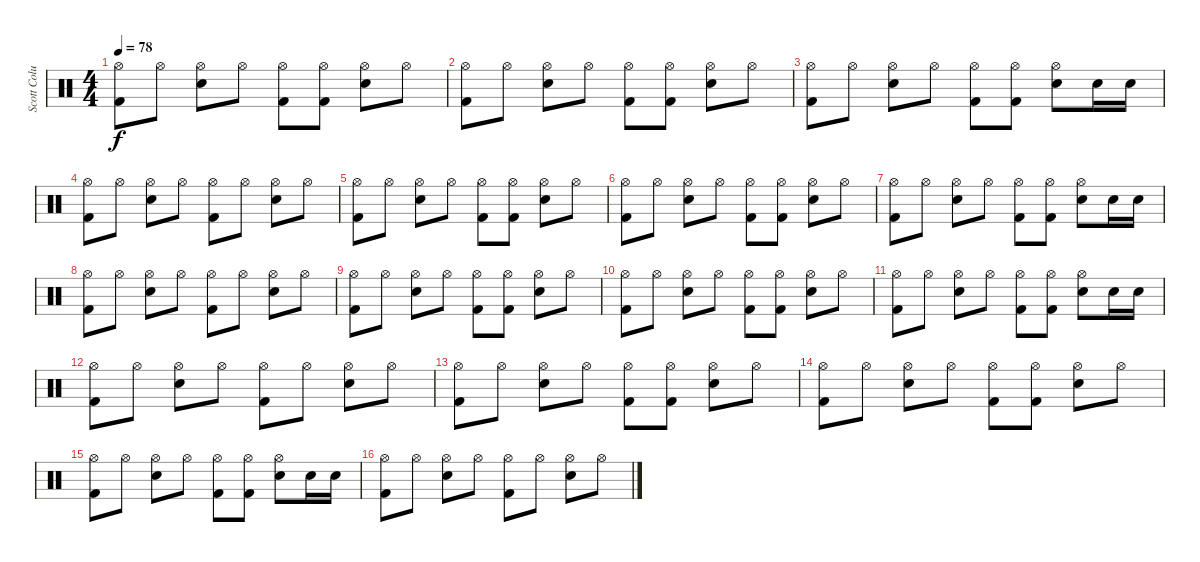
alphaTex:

\track ("Scott Columbus" "Scott Colu") {instrument percussion}
\staff {score}
\articulation defaults
\ts (4 4)
\tempo 78
\clef neutral
\ks c
("Kick (hit) 2" "Hi-Hat (open)").8{dy f} "Hi-Hat (open)".8 ("Electric Snare (hit)" "Hi-Hat (open)").8 "Hi-Hat (open)".8 ("Kick (hit) 2" "Hi-Hat (open)").8 ("Kick (hit) 2" "Hi-Hat (open)").8 ("Electric Snare (hit)" "Hi-Hat (open)").8 "Hi-Hat (open)".8 |
("Kick (hit) 2" "Hi-Hat (open)").8 "Hi-Hat (open)".8 ("Electric Snare (hit)" "Hi-Hat (open)").8 "Hi-Hat (open)".8 ("Kick (hit) 2" "Hi-Hat (open)").8 ("Kick (hit) 2" "Hi-Hat (open)").8 ("Electric Snare (hit)" "Hi-Hat (open)").8 "Hi-Hat (open)".8 |
("Kick (hit) 2" "Hi-Hat (open)").8 "Hi-Hat (open)".8 ("Electric Snare (hit)" "Hi-Hat (open)").8 "Hi-Hat (open)".8 ("Kick (hit) 2" "Hi-Hat (open)").8 ("Kick (hit) 2" "Hi-Hat (open)").8 ("Electric Snare (hit)" "Hi-Hat (open)").8 "Electric Snare (hit)".16 "Electric Snare (hit)".16 |
("Kick (hit) 2" "Hi-Hat (open)").8 "Hi-Hat (open)".8 ("Electric Snare (hit)" "Hi-Hat (open)").8 "Hi-Hat (open)".8 ("Kick (hit) 2" "Hi-Hat (open)").8 "Hi-Hat (open)".8 ("Electric Snare (hit)" "Hi-Hat (open)").8 "Hi-Hat (open)".8 |
("Kick (hit) 2" "Hi-Hat (open)").8 "Hi-Hat (open)".8 ("Electric Snare (hit)" "Hi-Hat (open)").8 "Hi-Hat (open)".8 ("Kick (hit) 2" "Hi-Hat (open)").8 ("Kick (hit) 2" "Hi-Hat (open)").8 ("Electric Snare (hit)" "Hi-Hat (open)").8 "Hi-Hat (open)".8 |
("Kick (hit) 2" "Hi-Hat (open)").8 "Hi-Hat (open)".8 ("Electric Snare (hit)" "Hi-Hat (open)").8 "Hi-Hat (open)".8 ("Kick (hit) 2" "Hi-Hat (open)").8 ("Kick (hit) 2" "Hi-Hat (open)").8 ("Electric Snare (hit)" "Hi-Hat (open)").8 "Hi-Hat (open)".8 |
("Kick (hit) 2" "Hi-Hat (open)").8 "Hi-Hat (open)".8 ("Electric Snare (hit)" "Hi-Hat (open)").8 "Hi-Hat (open)".8 ("Kick (hit) 2" "Hi-Hat (open)").8 ("Kick (hit) 2" "Hi-Hat (open)").8 ("Electric Snare (hit)" "Hi-Hat (open)").8 "Electric Snare (hit)".16 "Electric Snare (hit)".16 |
("Kick (hit) 2" "Hi-Hat (open)").8 "Hi-Hat (open)".8 ("Electric Snare (hit)" "Hi-Hat (open)").8 "Hi-Hat (open)".8 ("Kick (hit) 2" "Hi-Hat (open)").8 "Hi-Hat (open)".8 ("Electric Snare (hit)" "Hi-Hat (open)").8 "Hi-Hat (open)".8 |
("Kick (hit) 2" "Hi-Hat (open)").8 "Hi-Hat (open)".8 ("Electric Snare (hit)" "Hi-Hat (open)").8 "Hi-Hat (open)".8 ("Kick (hit) 2" "Hi-Hat (open)").8 ("Kick (hit) 2" "Hi-Hat (open)").8 ("Electric Snare (hit)" "Hi-Hat (open)").8 "Hi-Hat (open)".8 |
("Kick (hit) 2" "Hi-Hat (open)").8 "Hi-Hat (open)".8 ("Electric Snare (hit)" "Hi-Hat (open)").8 "Hi-Hat (open)".8 ("Kick (hit) 2" "Hi-Hat (open)").8 ("Kick (hit) 2" "Hi-Hat (open)").8 ("Electric Snare (hit)" "Hi-Hat (open)").8 "Hi-Hat (open)".8 |
("Kick (hit) 2" "Hi-Hat (open)").8 "Hi-Hat (open)".8 ("Electric Snare (hit)" "Hi-Hat (open)").8 "Hi-Hat (open)".8 ("Kick (hit) 2" "Hi-Hat (open)").8 ("Kick (hit) 2" "Hi-Hat (open)").8 ("Electric Snare (hit)" "Hi-Hat (open)").8 "Electric Snare (hit)".16 "Electric Snare (hit)".16 |
("Kick (hit) 2" "Hi-Hat (open)").8 "Hi-Hat (open)".8 ("Electric Snare (hit)" "Hi-Hat (open)").8 "Hi-Hat (open)".8 ("Kick (hit) 2" "Hi-Hat (open)").8 "Hi-Hat (open)".8 ("Electric Snare (hit)" "Hi-Hat (open)").8 "Hi-Hat (open)".8 |
("Kick (hit) 2" "Hi-Hat (open)").8 "Hi-Hat (open)".8 ("Electric Snare (hit)" "Hi-Hat (open)").8 "Hi-Hat (open)".8 ("Kick (hit) 2" "Hi-Hat (open)").8 ("Kick (hit) 2" "Hi-Hat (open)").8 ("Electric Snare (hit)" "Hi-Hat (open)").8 "Hi-Hat (open)".8 |
("Kick (hit) 2" "Hi-Hat (open)").8 "Hi-Hat (open)".8 ("Electric Snare (hit)" "Hi-Hat (open)").8 "Hi-Hat (open)".8 ("Kick (hit) 2" "Hi-Hat (open)").8 ("Kick (hit) 2" "Hi-Hat (open)").8 ("Electric Snare (hit)" "Hi-Hat (open)").8 "Hi-Hat (open)".8 |
("Kick (hit) 2" "Hi-Hat (open)").8 "Hi-Hat (open)".8 ("Electric Snare (hit)" "Hi-Hat (open)").8 "Hi-Hat (open)".8 ("Kick (hit) 2" "Hi-Hat (open)").8 ("Kick (hit) 2" "Hi-Hat (open)").8 ("Electric Snare (hit)" "Hi-Hat (open)").8 "Electric Snare (hit)".16 "Electric Snare (hit)".16 |
("Kick (hit) 2" "Hi-Hat (open)").8 "Hi-Hat (open)".8 ("Electric Snare (hit)" "Hi-Hat (open)").8 "Hi-Hat (open)".8 ("Kick (hit) 2" "Hi-Hat (open)").8 "Hi-Hat (open)".8 ("Electric Snare (hit)" "Hi-Hat (open)").8 "Hi-Hat (open)".8
